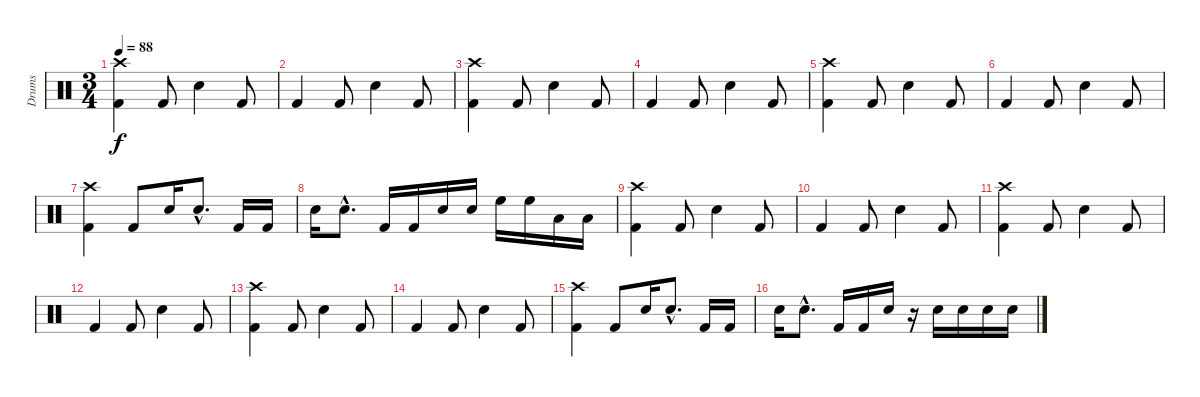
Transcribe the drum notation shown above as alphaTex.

\track ("Drums" "Drums") {instrument percussion}
\staff {score}
\articulation defaults
\ts (3 4)
\tempo 88
\clef neutral
\ks c
("Crash high (hit)" "Kick (hit) 2").4{dy f} "Kick (hit) 2".8 "Snare (hit) 2".4 "Kick (hit) 2".8 |
"Kick (hit) 2".4 "Kick (hit) 2".8 "Snare (hit) 2".4 "Kick (hit) 2".8 |
("Crash high (hit)" "Kick (hit) 2").4 "Kick (hit) 2".8 "Snare (hit) 2".4 "Kick (hit) 2".8 |
"Kick (hit) 2".4 "Kick (hit) 2".8 "Snare (hit) 2".4 "Kick (hit) 2".8 |
("Crash high (hit)" "Kick (hit) 2").4 "Kick (hit) 2".8 "Snare (hit) 2".4 "Kick (hit) 2".8 |
"Kick (hit) 2".4 "Kick (hit) 2".8 "Snare (hit) 2".4 "Kick (hit) 2".8 |
("Crash high (hit)" "Kick (hit) 2").4 "Kick (hit) 2".8 "Snare (hit) 2".16 "Snare (hit) 2"{hac}.8{d} "Kick (hit) 2".16 "Kick (hit) 2".16 |
"Snare (hit) 2".16 "Snare (hit) 2"{hac}.8{d} "Kick (hit) 2".16 "Kick (hit) 2".16 "Snare (hit) 2".16 "Snare (hit) 2".16 "High Floor Tom (hit)".16 "High Floor Tom (hit)".16 "Low Tom (hit)".16 "Low Tom (hit)".16 |
("Crash high (hit)" "Kick (hit) 2").4 "Kick (hit) 2".8 "Snare (hit) 2".4 "Kick (hit) 2".8 |
"Kick (hit) 2".4 "Kick (hit) 2".8 "Snare (hit) 2".4 "Kick (hit) 2".8 |
("Crash high (hit)" "Kick (hit) 2").4 "Kick (hit) 2".8 "Snare (hit) 2".4 "Kick (hit) 2".8 |
"Kick (hit) 2".4 "Kick (hit) 2".8 "Snare (hit) 2".4 "Kick (hit) 2".8 |
("Crash high (hit)" "Kick (hit) 2").4 "Kick (hit) 2".8 "Snare (hit) 2".4 "Kick (hit) 2".8 |
"Kick (hit) 2".4 "Kick (hit) 2".8 "Snare (hit) 2".4 "Kick (hit) 2".8 |
("Crash high (hit)" "Kick (hit) 2").4 "Kick (hit) 2".8 "Snare (hit) 2".16 "Snare (hit) 2"{hac}.8{d} "Kick (hit) 2".16 "Kick (hit) 2".16 |
"Snare (hit) 2".16 "Snare (hit) 2"{hac}.8{d} "Kick (hit) 2".16 "Kick (hit) 2".16 "Snare (hit) 2".16 r.16 "Snare (hit) 2".16 "Snare (hit) 2".16 "Snare (hit) 2".16 "Snare (hit) 2".16
